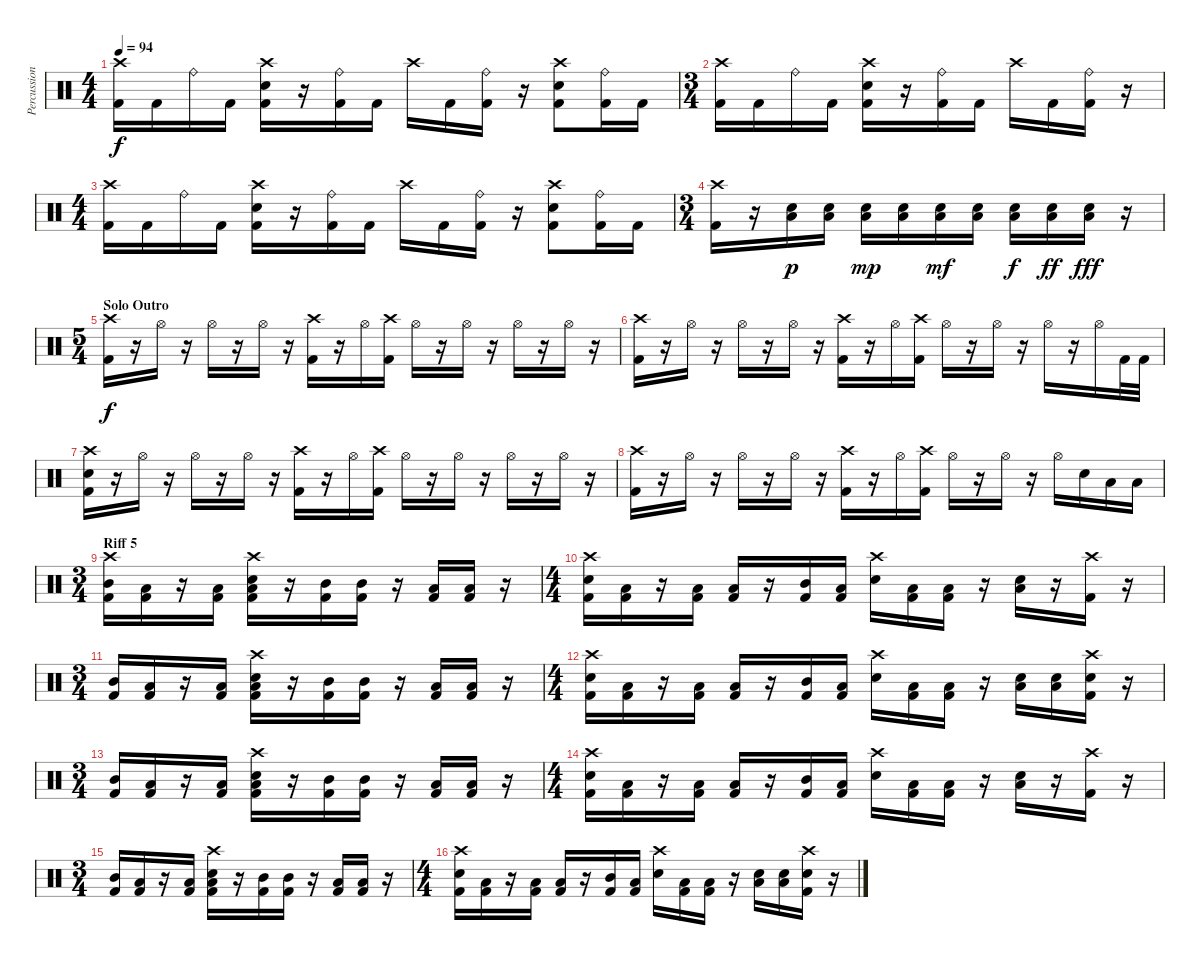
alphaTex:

\track ("Percussion" "Percussion") {instrument percussion}
\staff {score}
\articulation defaults
\ts (4 4)
\tempo 94
\clef neutral
\ks c
("Crash high (hit)" "Kick (hit) 2").16{dy f} "Kick (hit) 2".16 "Ride (bell)".16 "Kick (hit) 2".16 ("Crash high (hit)" "Electric Snare (hit)" "Kick (hit) 2").16 r.16 ("Ride (bell)" "Kick (hit) 2").16 "Kick (hit) 2".16 "Crash high (hit)".16 "Kick (hit) 2".16 ("Ride (bell)" "Kick (hit) 2").16 r.16 ("Crash high (hit)" "Electric Snare (hit)" "Kick (hit) 2").8 ("Ride (bell)" "Kick (hit) 2").16 "Kick (hit) 2".16 |
\ts (3 4)
("Crash high (hit)" "Kick (hit) 2").16 "Kick (hit) 2".16 "Ride (bell)".16 "Kick (hit) 2".16 ("Crash high (hit)" "Electric Snare (hit)" "Kick (hit) 2").16 r.16 ("Ride (bell)" "Kick (hit) 2").16 "Kick (hit) 2".16 "Crash high (hit)".16 "Kick (hit) 2".16 ("Ride (bell)" "Kick (hit) 2").16 r.16 |
\ts (4 4)
("Crash high (hit)" "Kick (hit) 2").16 "Kick (hit) 2".16 "Ride (bell)".16 "Kick (hit) 2".16 ("Crash high (hit)" "Electric Snare (hit)" "Kick (hit) 2").16 r.16 ("Ride (bell)" "Kick (hit) 2").16 "Kick (hit) 2".16 "Crash high (hit)".16 "Kick (hit) 2".16 ("Ride (bell)" "Kick (hit) 2").16 r.16 ("Crash high (hit)" "Electric Snare (hit)" "Kick (hit) 2").8 ("Ride (bell)" "Kick (hit) 2").16 "Kick (hit) 2".16 |
\ts (3 4)
("Crash high (hit)" "Kick (hit) 2").16 r.16 ("Electric Snare (hit)" "Low Floor Tom (hit)").16{dy p} ("Electric Snare (hit)" "Low Floor Tom (hit)").16 ("Electric Snare (hit)" "Low Floor Tom (hit)").16{dy mp} ("Electric Snare (hit)" "Low Floor Tom (hit)").16 ("Electric Snare (hit)" "Low Floor Tom (hit)").16{dy mf} ("Electric Snare (hit)" "Low Floor Tom (hit)").16 ("Electric Snare (hit)" "Low Floor Tom (hit)").16{dy f} ("Electric Snare (hit)" "Low Floor Tom (hit)").16{dy ff} ("Electric Snare (hit)" "Low Floor Tom (hit)").16{dy fff} r.16 |
\ts (5 4)
\section ("" "Solo Outro")
("Crash high (hit)" "Kick (hit) 2").16{dy f} r.16 "Hi-Hat (open)".16 r.16 "Hi-Hat (open)".16 r.16 "Hi-Hat (open)".16 r.16 ("Crash high (hit)" "Kick (hit) 2").16 r.16 "Hi-Hat (open)".16 ("Crash high (hit)" "Kick (hit) 2").16 "Hi-Hat (open)".16 r.16 "Hi-Hat (open)".16 r.16 "Hi-Hat (open)".16 r.16 "Hi-Hat (open)".16 r.16 |
("Crash high (hit)" "Kick (hit) 2").16 r.16 "Hi-Hat (open)".16 r.16 "Hi-Hat (open)".16 r.16 "Hi-Hat (open)".16 r.16 ("Crash high (hit)" "Kick (hit) 2").16 r.16 "Hi-Hat (open)".16 ("Crash high (hit)" "Kick (hit) 2").16 "Hi-Hat (open)".16 r.16 "Hi-Hat (open)".16 r.16 "Hi-Hat (open)".16 r.16 "Hi-Hat (open)".16 "Kick (hit) 2".32 "Kick (hit) 2".32 |
("Crash high (hit)" "Electric Snare (hit)" "Kick (hit) 2").16 r.16 "Hi-Hat (open)".16 r.16 "Hi-Hat (open)".16 r.16 "Hi-Hat (open)".16 r.16 ("Crash high (hit)" "Kick (hit) 2").16 r.16 "Hi-Hat (open)".16 ("Crash high (hit)" "Kick (hit) 2").16 "Hi-Hat (open)".16 r.16 "Hi-Hat (open)".16 r.16 "Hi-Hat (open)".16 r.16 "Hi-Hat (open)".16 r.16 |
("Crash high (hit)" "Kick (hit) 2").16 r.16 "Hi-Hat (open)".16 r.16 "Hi-Hat (open)".16 r.16 "Hi-Hat (open)".16 r.16 ("Crash high (hit)" "Kick (hit) 2").16 r.16 "Hi-Hat (open)".16 ("Crash high (hit)" "Kick (hit) 2").16 "Hi-Hat (open)".16 r.16 "Hi-Hat (open)".16 r.16 "Hi-Hat (open)".16 "Electric Snare (hit)".16 "Low Tom (hit)".16 "Low Floor Tom (hit)".16 |
\ts (3 4)
\section ("" "Riff 5")
("Crash high (hit)" "Mid Tom (hit)" "Kick (hit) 2").16 ("Low Tom (hit)" "Kick (hit) 2").16 r.16 ("Low Tom (hit)" "Kick (hit) 2").16 ("Crash high (hit)" "Electric Snare (hit)" "Low Floor Tom (hit)" "Kick (hit) 2").16 r.16 ("Mid Tom (hit)" "Kick (hit) 2").16 ("Mid Tom (hit)" "Kick (hit) 2").16 r.16 ("Low Tom (hit)" "Kick (hit) 2").16 ("Low Floor Tom (hit)" "Kick (hit) 2").16 r.16 |
\ts (4 4)
("Crash high (hit)" "Electric Snare (hit)" "Kick (hit) 2").16 ("Low Tom (hit)" "Kick (hit) 2").16 r.16 ("Low Tom (hit)" "Kick (hit) 2").16 ("Low Floor Tom (hit)" "Kick (hit) 2").16 r.16 ("Mid Tom (hit)" "Kick (hit) 2").16 ("Low Tom (hit)" "Kick (hit) 2").16 ("Crash high (hit)" "Electric Snare (hit)").16 ("Low Tom (hit)" "Kick (hit) 2").16 ("Low Floor Tom (hit)" "Kick (hit) 2").16 r.16 ("Electric Snare (hit)" "Low Floor Tom (hit)").16 r.16 ("Crash high (hit)" "Kick (hit) 2").16 r.16 |
\ts (3 4)
("Mid Tom (hit)" "Kick (hit) 2").16 ("Low Tom (hit)" "Kick (hit) 2").16 r.16 ("Low Tom (hit)" "Kick (hit) 2").16 ("Crash high (hit)" "Electric Snare (hit)" "Low Floor Tom (hit)" "Kick (hit) 2").16 r.16 ("Mid Tom (hit)" "Kick (hit) 2").16 ("Mid Tom (hit)" "Kick (hit) 2").16 r.16 ("Low Tom (hit)" "Kick (hit) 2").16 ("Low Floor Tom (hit)" "Kick (hit) 2").16 r.16 |
\ts (4 4)
("Crash high (hit)" "Electric Snare (hit)" "Kick (hit) 2").16 ("Low Tom (hit)" "Kick (hit) 2").16 r.16 ("Low Tom (hit)" "Kick (hit) 2").16 ("Low Floor Tom (hit)" "Kick (hit) 2").16 r.16 ("Mid Tom (hit)" "Kick (hit) 2").16 ("Low Tom (hit)" "Kick (hit) 2").16 ("Crash high (hit)" "Electric Snare (hit)").16 ("Low Tom (hit)" "Kick (hit) 2").16 ("Low Floor Tom (hit)" "Kick (hit) 2").16 r.16 ("Electric Snare (hit)" "Low Floor Tom (hit)").16 ("Electric Snare (hit)" "Low Floor Tom (hit)").16 ("Crash high (hit)" "Electric Snare (hit)" "Kick (hit) 2").16 r.16 |
\ts (3 4)
("Mid Tom (hit)" "Kick (hit) 2").16 ("Low Tom (hit)" "Kick (hit) 2").16 r.16 ("Low Tom (hit)" "Kick (hit) 2").16 ("Crash high (hit)" "Electric Snare (hit)" "Low Floor Tom (hit)" "Kick (hit) 2").16 r.16 ("Mid Tom (hit)" "Kick (hit) 2").16 ("Mid Tom (hit)" "Kick (hit) 2").16 r.16 ("Low Tom (hit)" "Kick (hit) 2").16 ("Low Floor Tom (hit)" "Kick (hit) 2").16 r.16 |
\ts (4 4)
("Crash high (hit)" "Electric Snare (hit)" "Kick (hit) 2").16 ("Low Tom (hit)" "Kick (hit) 2").16 r.16 ("Low Tom (hit)" "Kick (hit) 2").16 ("Low Floor Tom (hit)" "Kick (hit) 2").16 r.16 ("Mid Tom (hit)" "Kick (hit) 2").16 ("Low Tom (hit)" "Kick (hit) 2").16 ("Crash high (hit)" "Electric Snare (hit)").16 ("Low Tom (hit)" "Kick (hit) 2").16 ("Low Floor Tom (hit)" "Kick (hit) 2").16 r.16 ("Electric Snare (hit)" "Low Floor Tom (hit)").16 r.16 ("Crash high (hit)" "Kick (hit) 2").16 r.16 |
\ts (3 4)
("Mid Tom (hit)" "Kick (hit) 2").16 ("Low Tom (hit)" "Kick (hit) 2").16 r.16 ("Low Tom (hit)" "Kick (hit) 2").16 ("Crash high (hit)" "Electric Snare (hit)" "Low Floor Tom (hit)" "Kick (hit) 2").16 r.16 ("Mid Tom (hit)" "Kick (hit) 2").16 ("Mid Tom (hit)" "Kick (hit) 2").16 r.16 ("Low Tom (hit)" "Kick (hit) 2").16 ("Low Floor Tom (hit)" "Kick (hit) 2").16 r.16 |
\ts (4 4)
("Crash high (hit)" "Electric Snare (hit)" "Kick (hit) 2").16 ("Low Tom (hit)" "Kick (hit) 2").16 r.16 ("Low Tom (hit)" "Kick (hit) 2").16 ("Low Floor Tom (hit)" "Kick (hit) 2").16 r.16 ("Mid Tom (hit)" "Kick (hit) 2").16 ("Low Tom (hit)" "Kick (hit) 2").16 ("Crash high (hit)" "Electric Snare (hit)").16 ("Low Tom (hit)" "Kick (hit) 2").16 ("Low Floor Tom (hit)" "Kick (hit) 2").16 r.16 ("Electric Snare (hit)" "Low Floor Tom (hit)").16 ("Electric Snare (hit)" "Low Floor Tom (hit)").16 ("Crash high (hit)" "Electric Snare (hit)" "Kick (hit) 2").16 r.16
